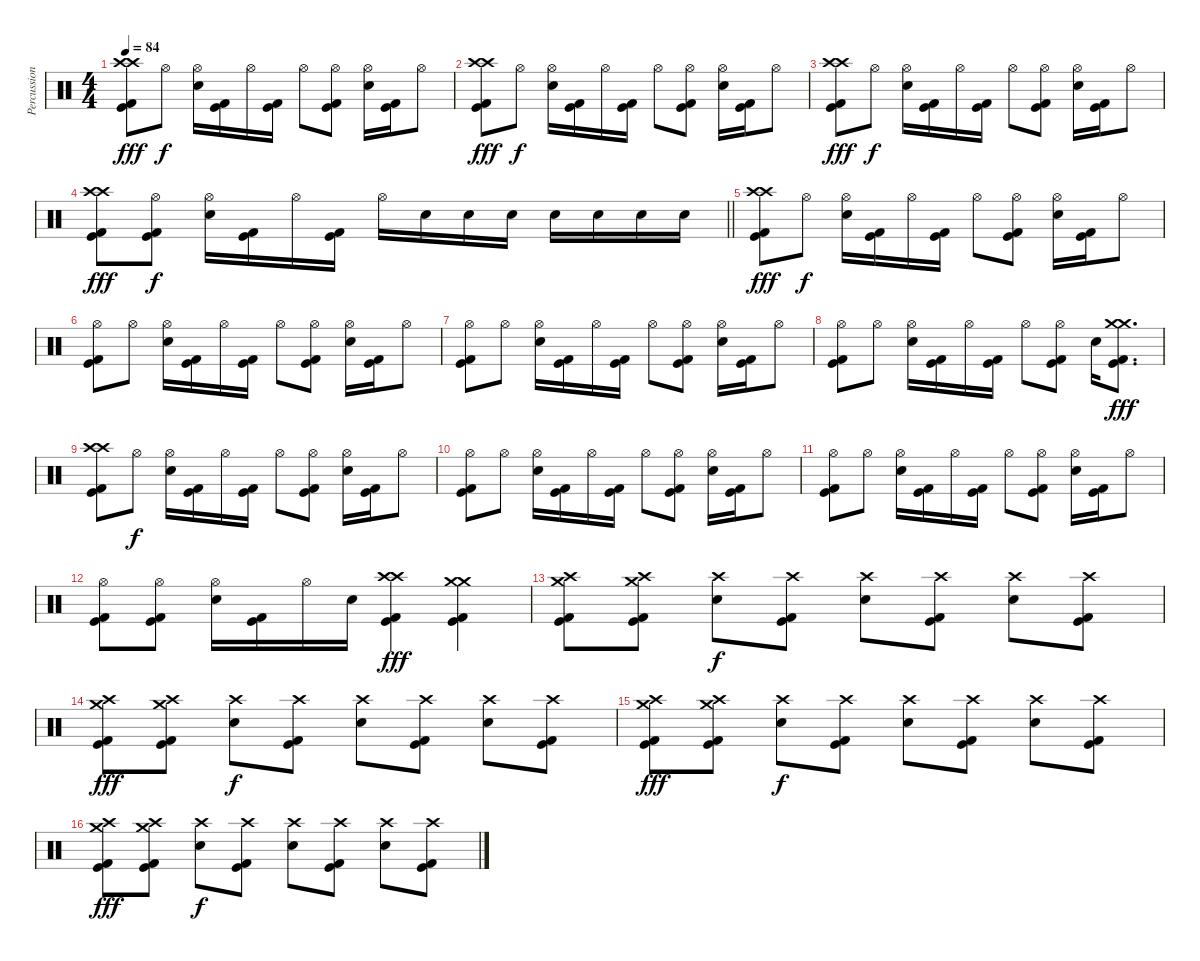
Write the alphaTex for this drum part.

\track ("Percussion" "Percussion") {instrument percussion}
\staff {score}
\articulation defaults
\ts (4 4)
\tempo 84
\clef neutral
\ks c
("Crash high (hit)" "Crash high (hit)" "Kick (hit) 2" "Kick (hit)").8{dy fff volume 14} "Hi-Hat (open)".8{dy f} ("Hi-Hat (open)" "Snare (hit) 2").16 ("Kick (hit) 2" "Kick (hit)").16 "Hi-Hat (open)".16 ("Kick (hit) 2" "Kick (hit)").16 "Hi-Hat (open)".8 ("Hi-Hat (open)" "Kick (hit) 2" "Kick (hit)").8 ("Hi-Hat (open)" "Snare (hit) 2").16 ("Kick (hit) 2" "Kick (hit)").16 "Hi-Hat (open)".8 |
("Crash high (hit)" "Crash high (hit)" "Kick (hit) 2" "Kick (hit)").8{dy fff} "Hi-Hat (open)".8{dy f} ("Hi-Hat (open)" "Snare (hit) 2").16 ("Kick (hit) 2" "Kick (hit)").16 "Hi-Hat (open)".16 ("Kick (hit) 2" "Kick (hit)").16 "Hi-Hat (open)".8 ("Hi-Hat (open)" "Kick (hit) 2" "Kick (hit)").8 ("Hi-Hat (open)" "Snare (hit) 2").16 ("Kick (hit) 2" "Kick (hit)").16 "Hi-Hat (open)".8 |
("Crash high (hit)" "Crash high (hit)" "Kick (hit) 2" "Kick (hit)").8{dy fff} "Hi-Hat (open)".8{dy f} ("Hi-Hat (open)" "Snare (hit) 2").16 ("Kick (hit) 2" "Kick (hit)").16 "Hi-Hat (open)".16 ("Kick (hit) 2" "Kick (hit)").16 "Hi-Hat (open)".8 ("Hi-Hat (open)" "Kick (hit) 2" "Kick (hit)").8 ("Hi-Hat (open)" "Snare (hit) 2").16 ("Kick (hit) 2" "Kick (hit)").16 "Hi-Hat (open)".8 |
\barLineRight lightlight
("Crash high (hit)" "Crash high (hit)" "Kick (hit) 2" "Kick (hit)").8{dy fff} ("Hi-Hat (open)" "Kick (hit) 2" "Kick (hit)").8{dy f} ("Hi-Hat (open)" "Snare (hit) 2").16 ("Kick (hit) 2" "Kick (hit)").16 "Hi-Hat (open)".16 ("Kick (hit) 2" "Kick (hit)").16 "Hi-Hat (open)".16 "Snare (hit) 2".16 "Snare (hit) 2".16 "Snare (hit) 2".16 "Snare (hit) 2".16 "Snare (hit) 2".16 "Snare (hit) 2".16 "Snare (hit) 2".16 |
("Crash high (hit)" "Crash high (hit)" "Kick (hit) 2" "Kick (hit)").8{dy fff} "Hi-Hat (open)".8{dy f} ("Hi-Hat (open)" "Snare (hit) 2").16 ("Kick (hit) 2" "Kick (hit)").16 "Hi-Hat (open)".16 ("Kick (hit) 2" "Kick (hit)").16 "Hi-Hat (open)".8 ("Hi-Hat (open)" "Kick (hit) 2" "Kick (hit)").8 ("Hi-Hat (open)" "Snare (hit) 2").16 ("Kick (hit) 2" "Kick (hit)").16 "Hi-Hat (open)".8 |
("Hi-Hat (open)" "Kick (hit) 2" "Kick (hit)").8 "Hi-Hat (open)".8 ("Hi-Hat (open)" "Snare (hit) 2").16 ("Kick (hit) 2" "Kick (hit)").16 "Hi-Hat (open)".16 ("Kick (hit) 2" "Kick (hit)").16 "Hi-Hat (open)".8 ("Hi-Hat (open)" "Kick (hit) 2" "Kick (hit)").8 ("Hi-Hat (open)" "Snare (hit) 2").16 ("Kick (hit) 2" "Kick (hit)").16 "Hi-Hat (open)".8 |
("Hi-Hat (open)" "Kick (hit) 2" "Kick (hit)").8 "Hi-Hat (open)".8 ("Hi-Hat (open)" "Snare (hit) 2").16 ("Kick (hit) 2" "Kick (hit)").16 "Hi-Hat (open)".16 ("Kick (hit) 2" "Kick (hit)").16 "Hi-Hat (open)".8 ("Hi-Hat (open)" "Kick (hit) 2" "Kick (hit)").8 ("Hi-Hat (open)" "Snare (hit) 2").16 ("Kick (hit) 2" "Kick (hit)").16 "Hi-Hat (open)".8 |
("Hi-Hat (open)" "Kick (hit) 2" "Kick (hit)").8 "Hi-Hat (open)".8 ("Hi-Hat (open)" "Snare (hit) 2").16 ("Kick (hit) 2" "Kick (hit)").16 "Hi-Hat (open)".16 ("Kick (hit) 2" "Kick (hit)").16 "Hi-Hat (open)".8 ("Hi-Hat (open)" "Kick (hit) 2" "Kick (hit)").8 "Snare (hit) 2".16 ("Crash medium (hit)" "Crash medium (hit)" "Kick (hit) 2" "Kick (hit)").8{d dy fff} |
("Crash high (hit)" "Crash high (hit)" "Kick (hit) 2" "Kick (hit)").8 "Hi-Hat (open)".8{dy f} ("Hi-Hat (open)" "Snare (hit) 2").16 ("Kick (hit) 2" "Kick (hit)").16 "Hi-Hat (open)".16 ("Kick (hit) 2" "Kick (hit)").16 "Hi-Hat (open)".8 ("Hi-Hat (open)" "Kick (hit) 2" "Kick (hit)").8 ("Hi-Hat (open)" "Snare (hit) 2").16 ("Kick (hit) 2" "Kick (hit)").16 "Hi-Hat (open)".8 |
("Hi-Hat (open)" "Kick (hit) 2" "Kick (hit)").8 "Hi-Hat (open)".8 ("Hi-Hat (open)" "Snare (hit) 2").16 ("Kick (hit) 2" "Kick (hit)").16 "Hi-Hat (open)".16 ("Kick (hit) 2" "Kick (hit)").16 "Hi-Hat (open)".8 ("Hi-Hat (open)" "Kick (hit) 2" "Kick (hit)").8 ("Hi-Hat (open)" "Snare (hit) 2").16 ("Kick (hit) 2" "Kick (hit)").16 "Hi-Hat (open)".8 |
("Hi-Hat (open)" "Kick (hit) 2" "Kick (hit)").8 "Hi-Hat (open)".8 ("Hi-Hat (open)" "Snare (hit) 2").16 ("Kick (hit) 2" "Kick (hit)").16 "Hi-Hat (open)".16 ("Kick (hit) 2" "Kick (hit)").16 "Hi-Hat (open)".8 ("Hi-Hat (open)" "Kick (hit) 2" "Kick (hit)").8 ("Hi-Hat (open)" "Snare (hit) 2").16 ("Kick (hit) 2" "Kick (hit)").16 "Hi-Hat (open)".8 |
("Hi-Hat (open)" "Kick (hit) 2" "Kick (hit)").8 ("Hi-Hat (open)" "Kick (hit) 2" "Kick (hit)").8 ("Hi-Hat (open)" "Snare (hit) 2").16 ("Kick (hit) 2" "Kick (hit)").16 "Hi-Hat (open)".16 "Snare (hit) 2".16 ("Crash high (hit)" "Crash high (hit)" "Kick (hit) 2" "Kick (hit)").4{dy fff} ("Crash medium (hit)" "Crash medium (hit)" "Kick (hit) 2" "Kick (hit)").4 |
("Crash high (hit)" "Crash medium (hit)" "Kick (hit) 2" "Kick (hit)").8 ("Crash high (hit)" "Crash medium (hit)" "Kick (hit) 2" "Kick (hit)").8 ("Crash high (hit)" "Snare (hit) 2").8{dy f} ("Crash high (hit)" "Kick (hit) 2" "Kick (hit)").8 ("Crash high (hit)" "Snare (hit) 2").8 ("Crash high (hit)" "Kick (hit) 2" "Kick (hit)").8 ("Crash high (hit)" "Snare (hit) 2").8 ("Crash high (hit)" "Kick (hit) 2" "Kick (hit)").8 |
("Crash high (hit)" "Crash medium (hit)" "Kick (hit) 2" "Kick (hit)").8{dy fff} ("Crash high (hit)" "Crash medium (hit)" "Kick (hit) 2" "Kick (hit)").8 ("Crash high (hit)" "Snare (hit) 2").8{dy f} ("Crash high (hit)" "Kick (hit) 2" "Kick (hit)").8 ("Crash high (hit)" "Snare (hit) 2").8 ("Crash high (hit)" "Kick (hit) 2" "Kick (hit)").8 ("Crash high (hit)" "Snare (hit) 2").8 ("Crash high (hit)" "Kick (hit) 2" "Kick (hit)").8 |
("Crash high (hit)" "Crash medium (hit)" "Kick (hit) 2" "Kick (hit)").8{dy fff} ("Crash high (hit)" "Crash medium (hit)" "Kick (hit) 2" "Kick (hit)").8 ("Crash high (hit)" "Snare (hit) 2").8{dy f} ("Crash high (hit)" "Kick (hit) 2" "Kick (hit)").8 ("Crash high (hit)" "Snare (hit) 2").8 ("Crash high (hit)" "Kick (hit) 2" "Kick (hit)").8 ("Crash high (hit)" "Snare (hit) 2").8 ("Crash high (hit)" "Kick (hit) 2" "Kick (hit)").8 |
("Crash high (hit)" "Crash medium (hit)" "Kick (hit) 2" "Kick (hit)").8{dy fff} ("Crash high (hit)" "Crash medium (hit)" "Kick (hit) 2" "Kick (hit)").8 ("Crash high (hit)" "Snare (hit) 2").8{dy f} ("Crash high (hit)" "Kick (hit) 2" "Kick (hit)").8 ("Crash high (hit)" "Snare (hit) 2").8 ("Crash high (hit)" "Kick (hit) 2" "Kick (hit)").8 ("Crash high (hit)" "Snare (hit) 2").8 ("Crash high (hit)" "Kick (hit) 2" "Kick (hit)").8
